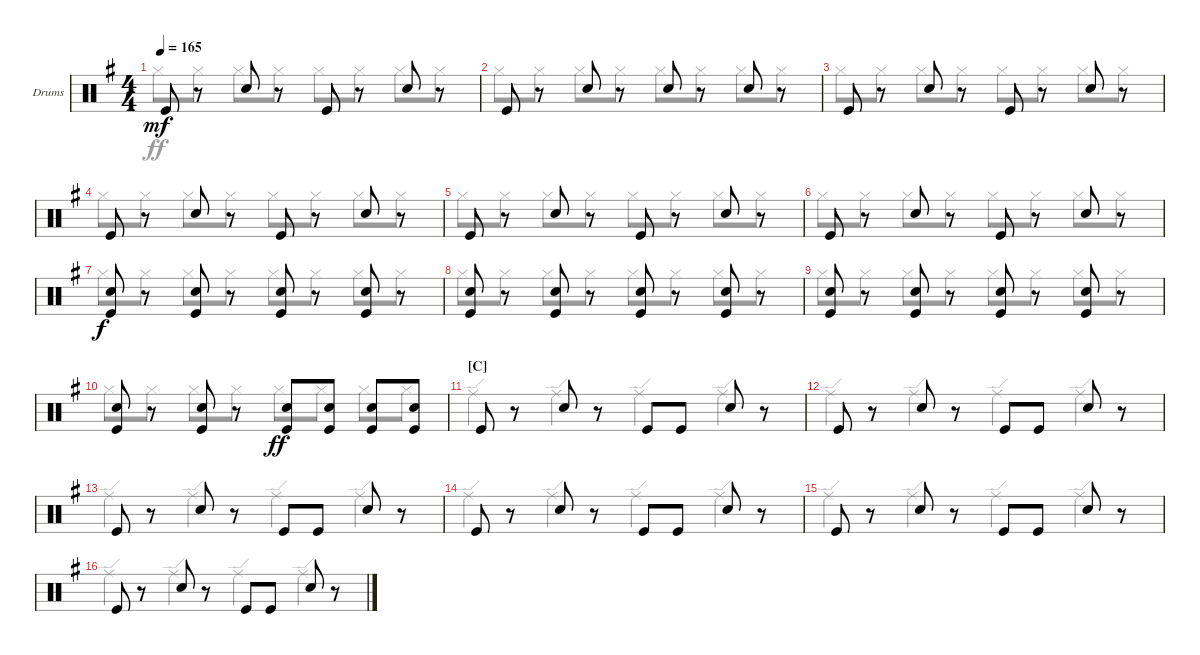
\defaultSystemsLayout 4
\bracketExtendMode groupsimilarinstruments
\firstSystemTrackNameOrientation horizontal
\otherSystemsTrackNameOrientation horizontal
\track ("Fabrizio Moretti" "Drums") {instrument percussion}
\staff {score}
\articulation defaults
\voice
\ts (4 4)
\tempo 165
\clef neutral
\ks g "Kick (hit)".8{dy mf}
r.8 "Snare (hit) 2".8 r.8 "Kick (hit)".8 r.8 "Snare (hit) 2".8 r.8 |
"Kick (hit)".8 r.8 "Snare (hit) 2".8 r.8 "Snare (hit) 2".8 r.8 "Snare (hit) 2".8 r.8 |
"Kick (hit)".8 r.8 "Snare (hit) 2".8 r.8 "Kick (hit)".8 r.8 "Snare (hit) 2".8 r.8 |
"Kick (hit)".8 r.8 "Snare (hit) 2".8 r.8 "Kick (hit)".8 r.8 "Snare (hit) 2".8 r.8 |
"Kick (hit)".8 r.8 "Snare (hit) 2".8 r.8 "Kick (hit)".8 r.8 "Snare (hit) 2".8 r.8 |
"Kick (hit)".8 r.8 "Snare (hit) 2".8 r.8 "Kick (hit)".8 r.8 "Snare (hit) 2".8 r.8 |
("Kick (hit)" "Snare (hit) 2").8{dy f} r.8 ("Kick (hit)" "Snare (hit) 2").8 r.8 ("Kick (hit)" "Snare (hit) 2").8 r.8 ("Kick (hit)" "Snare (hit) 2").8 r.8 |
("Kick (hit)" "Snare (hit) 2").8 r.8 ("Kick (hit)" "Snare (hit) 2").8 r.8 ("Kick (hit)" "Snare (hit) 2").8 r.8 ("Kick (hit)" "Snare (hit) 2").8 r.8 |
("Kick (hit)" "Snare (hit) 2").8 r.8 ("Kick (hit)" "Snare (hit) 2").8 r.8 ("Kick (hit)" "Snare (hit) 2").8 r.8 ("Kick (hit)" "Snare (hit) 2").8 r.8 |
("Kick (hit)" "Snare (hit) 2").8 r.8 ("Kick (hit)" "Snare (hit) 2").8 r.8 ("Kick (hit)" "Snare (hit) 2").8{dy ff} ("Kick (hit)" "Snare (hit) 2").8 ("Kick (hit)" "Snare (hit) 2").8 ("Kick (hit)" "Snare (hit) 2").8 |
\section ("C" "")
"Kick (hit)".8 r.8 "Snare (hit) 2".8 r.8 "Kick (hit)".8 "Kick (hit)".8 "Snare (hit) 2".8 r.8 |
"Kick (hit)".8 r.8 "Snare (hit) 2".8 r.8 "Kick (hit)".8 "Kick (hit)".8 "Snare (hit) 2".8 r.8 |
"Kick (hit)".8 r.8 "Snare (hit) 2".8 r.8 "Kick (hit)".8 "Kick (hit)".8 "Snare (hit) 2".8 r.8 |
"Kick (hit)".8 r.8 "Snare (hit) 2".8 r.8 "Kick (hit)".8 "Kick (hit)".8 "Snare (hit) 2".8 r.8 |
"Kick (hit)".8 r.8 "Snare (hit) 2".8 r.8 "Kick (hit)".8 "Kick (hit)".8 "Snare (hit) 2".8 r.8 |
"Kick (hit)".8 r.8 "Snare (hit) 2".8 r.8 "Kick (hit)".8 "Kick (hit)".8 "Snare (hit) 2".8 r.8
\voice
\clef neutral
\ottava regular
\simile none
\ks g "Hi-Hat (closed)".8{dy ff} "Hi-Hat (closed)".8 "Hi-Hat (closed)".8 "Hi-Hat (closed)".8 "Hi-Hat (closed)".8 "Hi-Hat (closed)".8 "Hi-Hat (closed)".8 "Hi-Hat (closed)".8
|
"Hi-Hat (closed)".8 "Hi-Hat (closed)".8 "Hi-Hat (closed)".8 "Hi-Hat (closed)".8 "Hi-Hat (closed)".8 "Hi-Hat (closed)".8 "Hi-Hat (closed)".8 "Hi-Hat (closed)".8 |
"Hi-Hat (closed)".8 "Hi-Hat (closed)".8 "Hi-Hat (closed)".8 "Hi-Hat (closed)".8 "Hi-Hat (closed)".8 "Hi-Hat (closed)".8 "Hi-Hat (closed)".8 "Hi-Hat (closed)".8 |
"Hi-Hat (closed)".8 "Hi-Hat (closed)".8 "Hi-Hat (closed)".8 "Hi-Hat (closed)".8 "Hi-Hat (closed)".8 "Hi-Hat (closed)".8 "Hi-Hat (closed)".8 "Hi-Hat (closed)".8 |
"Hi-Hat (closed)".8 "Hi-Hat (closed)".8 "Hi-Hat (closed)".8 "Hi-Hat (closed)".8 "Hi-Hat (closed)".8 "Hi-Hat (closed)".8 "Hi-Hat (closed)".8 "Hi-Hat (closed)".8 |
"Hi-Hat (closed)".8 "Hi-Hat (closed)".8 "Hi-Hat (closed)".8 "Hi-Hat (closed)".8 "Hi-Hat (closed)".8 "Hi-Hat (closed)".8 "Hi-Hat (closed)".8 "Hi-Hat (closed)".8 |
"Hi-Hat (closed)".8 "Hi-Hat (closed)".8 "Hi-Hat (closed)".8 "Hi-Hat (closed)".8 "Hi-Hat (closed)".8 "Hi-Hat (closed)".8 "Hi-Hat (closed)".8 "Hi-Hat (closed)".8 |
"Hi-Hat (closed)".8 "Hi-Hat (closed)".8 "Hi-Hat (closed)".8 "Hi-Hat (closed)".8 "Hi-Hat (closed)".8 "Hi-Hat (closed)".8 "Hi-Hat (closed)".8 "Hi-Hat (closed)".8 |
"Hi-Hat (closed)".8 "Hi-Hat (closed)".8 "Hi-Hat (closed)".8 "Hi-Hat (closed)".8 "Hi-Hat (closed)".8 "Hi-Hat (closed)".8 "Hi-Hat (closed)".8 "Hi-Hat (closed)".8 |
"Hi-Hat (closed)".8 "Hi-Hat (closed)".8 "Hi-Hat (closed)".8 "Hi-Hat (closed)".8 "Hi-Hat (closed)".8 "Hi-Hat (closed)".8 "Hi-Hat (closed)".8 "Hi-Hat (closed)".8 |
"Ride (edge)".4 "Ride (edge)".4 "Ride (edge)".4 "Ride (edge)".4 |
"Ride (edge)".4 "Ride (edge)".4 "Ride (edge)".4 "Ride (edge)".4 |
"Ride (edge)".4 "Ride (edge)".4 "Ride (edge)".4 "Ride (edge)".4 |
"Ride (edge)".4 "Ride (edge)".4 "Ride (edge)".4 "Ride (edge)".4 |
"Ride (edge)".4 "Ride (edge)".4 "Ride (edge)".4 "Ride (edge)".4 |
"Ride (edge)".4 "Ride (edge)".4 "Ride (edge)".4 "Ride (edge)".4
